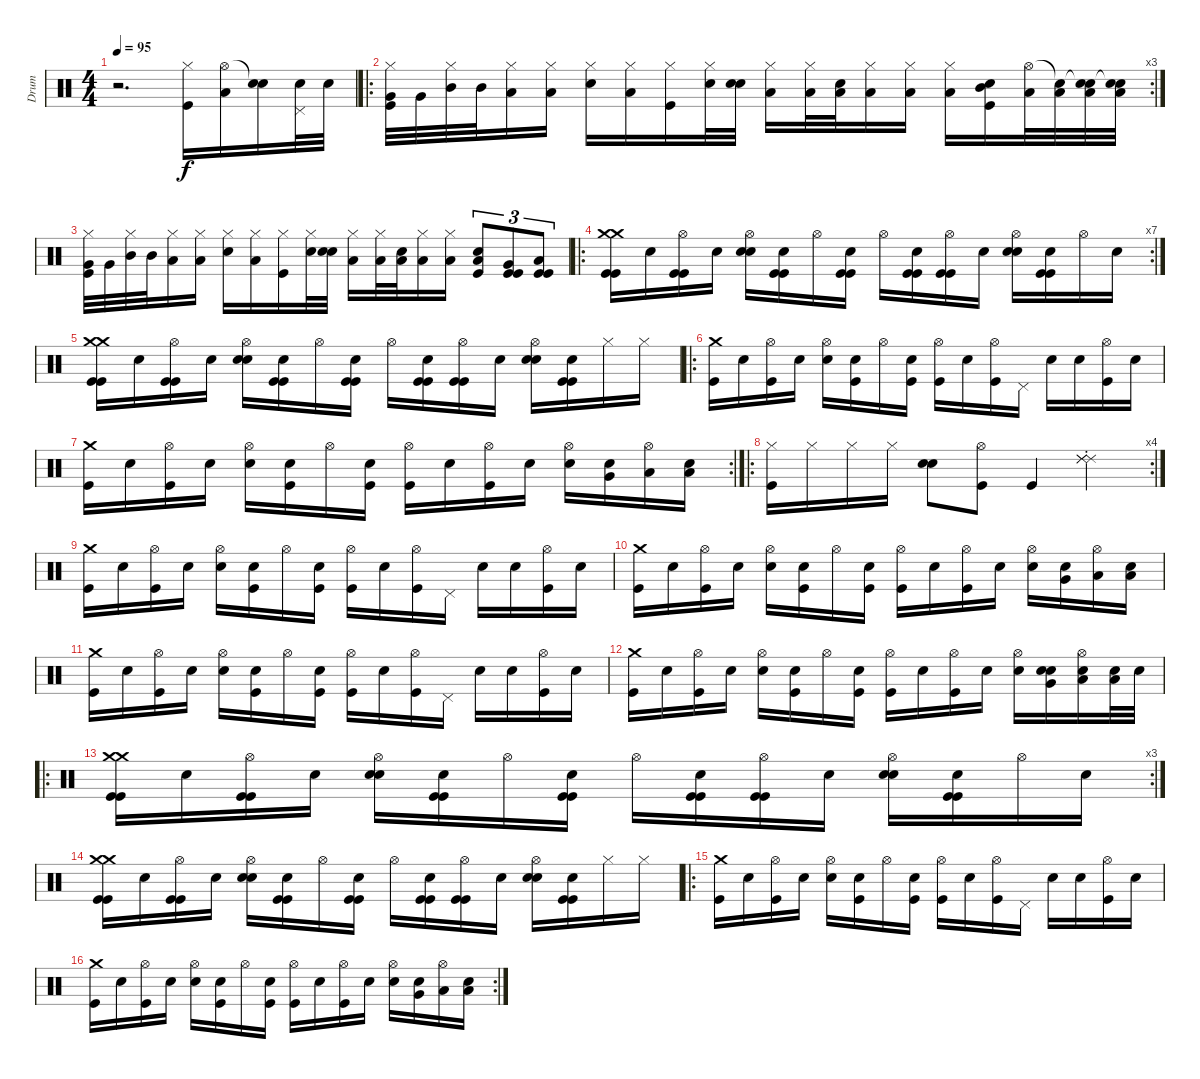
\track ("Drum" "Drum") {instrument percussion}
\staff {score}
\articulation defaults
\ts (4 4)
\tempo 95
\clef neutral
\ks c
r.2{d dy f} ("Hi-Hat (closed)" "Kick (hit)").16 ("Hi-Hat (open)" "Low Tom (hit)").16 ("Snare (hit)"{t} "Snare (hit) 2").16 ("Pedal Hi-Hat (hit)" "Snare (hit) 2").32 "Snare (hit) 2".32 |
\ro
\rc 3
("Hi-Hat (closed)" "Very Low Tom (hit)" "Kick (hit)").32 "Very Low Tom (hit)".32 ("Hi-Hat (closed)" "Mid Tom (hit)").32 "Mid Tom (hit)".32 ("Hi-Hat (closed)" "Low Tom (hit)").16 ("Hi-Hat (closed)" "Low Floor Tom (hit)").16 ("Hi-Hat (closed)" "Snare (hit) 2").16 ("Hi-Hat (closed)" "Low Tom (hit)").16 ("Hi-Hat (closed)" "Kick (hit)").16 ("Hi-Hat (closed)" "Snare (hit) 2").32 ("Snare (hit)" "Snare (hit) 2").32 ("Hi-Hat (closed)" "Low Floor Tom (hit)").16 ("Hi-Hat (closed)" "Low Floor Tom (hit)").32 ("Snare (hit)" "Low Floor Tom (hit)").32 ("Hi-Hat (closed)" "Low Floor Tom (hit)").16 ("Hi-Hat (closed)" "Low Floor Tom (hit)").16 ("Hi-Hat (closed)" "Low Floor Tom (hit)").16 ("Snare (hit)" "Mid Tom (hit)" "Kick (hit)").16 ("Hi-Hat (open)" "Low Tom (hit)").32 ("Snare (hit)"{t} "Low Tom (hit)").32 ("Snare (hit)"{t} "Snare (hit) 2" "Low Tom (hit)").32 ("Snare (hit)"{t} "Snare (hit) 2" "Low Tom (hit)").32 |
("Hi-Hat (closed)" "Very Low Tom (hit)" "Kick (hit)").32 "Very Low Tom (hit)".32 ("Hi-Hat (closed)" "Mid Tom (hit)").32 "Mid Tom (hit)".32 ("Hi-Hat (closed)" "Low Tom (hit)").16 ("Hi-Hat (closed)" "Low Floor Tom (hit)").16 ("Hi-Hat (closed)" "Snare (hit) 2").16 ("Hi-Hat (closed)" "Low Tom (hit)").16 ("Hi-Hat (closed)" "Kick (hit)").16 ("Hi-Hat (closed)" "Snare (hit) 2").32 ("Snare (hit)" "Snare (hit) 2").32 ("Hi-Hat (closed)" "Low Floor Tom (hit)").16 ("Hi-Hat (closed)" "Low Floor Tom (hit)").32 ("Snare (hit)" "Low Floor Tom (hit)").32 ("Hi-Hat (closed)" "Low Floor Tom (hit)").16 ("Hi-Hat (closed)" "Low Floor Tom (hit)").16 ("Snare (hit) 2" "Low Tom (hit)" "Kick (hit)").8{tu (3 2)} ("Kick (hit)" "Very Low Tom (hit)" "Kick (hit)").8{tu (3 2)} ("Kick (hit)" "Low Floor Tom (hit)" "Kick (hit)").8{tu (3 2)} |
\ro
\rc 7
("Crash medium (hit)" "Crash medium (hit)" "Kick (hit)" "Kick (hit)").16 "Snare (hit)".16 ("Hi-Hat (open)" "Kick (hit)" "Kick (hit)").16 "Snare (hit)".16 ("Hi-Hat (open)" "Snare (hit) 2" "Snare (hit) 2").16 ("Snare (hit)" "Kick (hit)" "Kick (hit)").16 "Hi-Hat (open)".16 ("Snare (hit)" "Kick (hit)" "Kick (hit)").16 "Hi-Hat (open)".16 ("Snare (hit)" "Kick (hit)" "Kick (hit)").16 ("Hi-Hat (open)" "Kick (hit)" "Kick (hit)").16 "Snare (hit)".16 ("Hi-Hat (open)" "Snare (hit) 2" "Snare (hit) 2").16 ("Snare (hit)" "Kick (hit)" "Kick (hit)").16 "Hi-Hat (open)".16 "Snare (hit)".16 |
("Crash medium (hit)" "Crash medium (hit)" "Kick (hit)" "Kick (hit)").16 "Snare (hit)".16 ("Hi-Hat (open)" "Kick (hit)" "Kick (hit)").16 "Snare (hit)".16 ("Hi-Hat (open)" "Snare (hit) 2" "Snare (hit) 2").16 ("Snare (hit)" "Kick (hit)" "Kick (hit)").16 "Hi-Hat (open)".16 ("Snare (hit)" "Kick (hit)" "Kick (hit)").16 "Hi-Hat (open)".16 ("Snare (hit)" "Kick (hit)" "Kick (hit)").16 ("Hi-Hat (open)" "Kick (hit)" "Kick (hit)").16 "Snare (hit)".16 ("Hi-Hat (open)" "Snare (hit) 2" "Snare (hit) 2").16 ("Snare (hit)" "Kick (hit)" "Kick (hit)").16 "Hi-Hat (closed)".16 "Hi-Hat (closed)".16 |
\ro
("Crash medium (hit)" "Kick (hit)").16 "Snare (hit)".16 ("Hi-Hat (open)" "Kick (hit)").16 "Snare (hit)".16 ("Hi-Hat (open)" "Snare (hit) 2").16 ("Snare (hit)" "Kick (hit)").16 "Hi-Hat (open)".16 ("Snare (hit)" "Kick (hit)").16 ("Hi-Hat (open)" "Kick (hit)").16 "Snare (hit)".16 ("Hi-Hat (open)" "Kick (hit)").16 "Pedal Hi-Hat (hit)".16 "Snare (hit)".16 "Snare (hit)".16 ("Hi-Hat (open)" "Kick (hit)").16 "Snare (hit)".16 |
\rc 2
("Crash medium (hit)" "Kick (hit)").16 "Snare (hit)".16 ("Hi-Hat (open)" "Kick (hit)").16 "Snare (hit)".16 ("Hi-Hat (open)" "Snare (hit) 2").16 ("Snare (hit)" "Kick (hit)").16 "Hi-Hat (open)".16 ("Snare (hit)" "Kick (hit)").16 ("Hi-Hat (open)" "Kick (hit)").16 "Snare (hit)".16 ("Hi-Hat (open)" "Kick (hit)").16 "Snare (hit)".16 ("Hi-Hat (open)" "Snare (hit) 2").16 ("Snare (hit)" "Very Low Tom (hit)").16 ("Hi-Hat (open)" "Low Floor Tom (hit)").16 ("Snare (hit)" "Low Floor Tom (hit)").16 |
\ro
\rc 4
("Hi-Hat (closed)" "Kick (hit)").16 "Hi-Hat (closed)".16 "Hi-Hat (closed)".16 "Hi-Hat (closed)".16 ("Snare (hit)" "Snare (hit) 2").8 ("Hi-Hat (open)" "Kick (hit)").8 "Kick (hit)".4 ("Ride (choke) 2" "Ride (choke) 2" "Ride (choke) 2").4 |
("Crash medium (hit)" "Kick (hit)").16 "Snare (hit)".16 ("Hi-Hat (open)" "Kick (hit)").16 "Snare (hit)".16 ("Hi-Hat (open)" "Snare (hit) 2").16 ("Snare (hit)" "Kick (hit)").16 "Hi-Hat (open)".16 ("Snare (hit)" "Kick (hit)").16 ("Hi-Hat (open)" "Kick (hit)").16 "Snare (hit)".16 ("Hi-Hat (open)" "Kick (hit)").16 "Pedal Hi-Hat (hit)".16 "Snare (hit)".16 "Snare (hit)".16 ("Hi-Hat (open)" "Kick (hit)").16 "Snare (hit)".16 |
("Crash medium (hit)" "Kick (hit)").16 "Snare (hit)".16 ("Hi-Hat (open)" "Kick (hit)").16 "Snare (hit)".16 ("Hi-Hat (open)" "Snare (hit) 2").16 ("Snare (hit)" "Kick (hit)").16 "Hi-Hat (open)".16 ("Snare (hit)" "Kick (hit)").16 ("Hi-Hat (open)" "Kick (hit)").16 "Snare (hit)".16 ("Hi-Hat (open)" "Kick (hit)").16 "Snare (hit)".16 ("Hi-Hat (open)" "Snare (hit) 2").16 ("Snare (hit)" "Very Low Tom (hit)").16 ("Hi-Hat (open)" "Low Floor Tom (hit)").16 ("Snare (hit)" "Low Floor Tom (hit)").16 |
("Crash medium (hit)" "Kick (hit)").16 "Snare (hit)".16 ("Hi-Hat (open)" "Kick (hit)").16 "Snare (hit)".16 ("Hi-Hat (open)" "Snare (hit) 2").16 ("Snare (hit)" "Kick (hit)").16 "Hi-Hat (open)".16 ("Snare (hit)" "Kick (hit)").16 ("Hi-Hat (open)" "Kick (hit)").16 "Snare (hit)".16 ("Hi-Hat (open)" "Kick (hit)").16 "Pedal Hi-Hat (hit)".16 "Snare (hit)".16 "Snare (hit)".16 ("Hi-Hat (open)" "Kick (hit)").16 "Snare (hit)".16 |
("Crash medium (hit)" "Kick (hit)").16 "Snare (hit)".16 ("Hi-Hat (open)" "Kick (hit)").16 "Snare (hit)".16 ("Hi-Hat (open)" "Snare (hit) 2").16 ("Snare (hit)" "Kick (hit)").16 "Hi-Hat (open)".16 ("Snare (hit)" "Kick (hit)").16 ("Hi-Hat (open)" "Kick (hit)").16 "Snare (hit)".16 ("Hi-Hat (open)" "Kick (hit)").16 "Snare (hit)".16 ("Hi-Hat (open)" "Snare (hit) 2").16 ("Snare (hit)" "Snare (hit) 2" "Very Low Tom (hit)").16 ("Hi-Hat (open)" "Snare (hit) 2" "Low Floor Tom (hit)").16 ("Snare (hit) 2" "Low Floor Tom (hit)").32 "Snare (hit) 2".32 |
\ro
\rc 3
("Crash medium (hit)" "Crash medium (hit)" "Kick (hit)" "Kick (hit)").16 "Snare (hit)".16 ("Hi-Hat (open)" "Kick (hit)" "Kick (hit)").16 "Snare (hit)".16 ("Hi-Hat (open)" "Snare (hit) 2" "Snare (hit) 2").16 ("Snare (hit)" "Kick (hit)" "Kick (hit)").16 "Hi-Hat (open)".16 ("Snare (hit)" "Kick (hit)" "Kick (hit)").16 "Hi-Hat (open)".16 ("Snare (hit)" "Kick (hit)" "Kick (hit)").16 ("Hi-Hat (open)" "Kick (hit)" "Kick (hit)").16 "Snare (hit)".16 ("Hi-Hat (open)" "Snare (hit) 2" "Snare (hit) 2").16 ("Snare (hit)" "Kick (hit)" "Kick (hit)").16 "Hi-Hat (open)".16 "Snare (hit)".16 |
("Crash medium (hit)" "Crash medium (hit)" "Kick (hit)" "Kick (hit)").16 "Snare (hit)".16 ("Hi-Hat (open)" "Kick (hit)" "Kick (hit)").16 "Snare (hit)".16 ("Hi-Hat (open)" "Snare (hit) 2" "Snare (hit) 2").16 ("Snare (hit)" "Kick (hit)" "Kick (hit)").16 "Hi-Hat (open)".16 ("Snare (hit)" "Kick (hit)" "Kick (hit)").16 "Hi-Hat (open)".16 ("Snare (hit)" "Kick (hit)" "Kick (hit)").16 ("Hi-Hat (open)" "Kick (hit)" "Kick (hit)").16 "Snare (hit)".16 ("Hi-Hat (open)" "Snare (hit) 2" "Snare (hit) 2").16 ("Snare (hit)" "Kick (hit)" "Kick (hit)").16 "Hi-Hat (closed)".16 "Hi-Hat (closed)".16 |
\ro
("Crash medium (hit)" "Kick (hit)").16 "Snare (hit)".16 ("Hi-Hat (open)" "Kick (hit)").16 "Snare (hit)".16 ("Hi-Hat (open)" "Snare (hit) 2").16 ("Snare (hit)" "Kick (hit)").16 "Hi-Hat (open)".16 ("Snare (hit)" "Kick (hit)").16 ("Hi-Hat (open)" "Kick (hit)").16 "Snare (hit)".16 ("Hi-Hat (open)" "Kick (hit)").16 "Pedal Hi-Hat (hit)".16 "Snare (hit)".16 "Snare (hit)".16 ("Hi-Hat (open)" "Kick (hit)").16 "Snare (hit)".16 |
\rc 2
("Crash medium (hit)" "Kick (hit)").16 "Snare (hit)".16 ("Hi-Hat (open)" "Kick (hit)").16 "Snare (hit)".16 ("Hi-Hat (open)" "Snare (hit) 2").16 ("Snare (hit)" "Kick (hit)").16 "Hi-Hat (open)".16 ("Snare (hit)" "Kick (hit)").16 ("Hi-Hat (open)" "Kick (hit)").16 "Snare (hit)".16 ("Hi-Hat (open)" "Kick (hit)").16 "Snare (hit)".16 ("Hi-Hat (open)" "Snare (hit) 2").16 ("Snare (hit)" "Very Low Tom (hit)").16 ("Hi-Hat (open)" "Low Floor Tom (hit)").16 ("Snare (hit)" "Low Floor Tom (hit)").16
